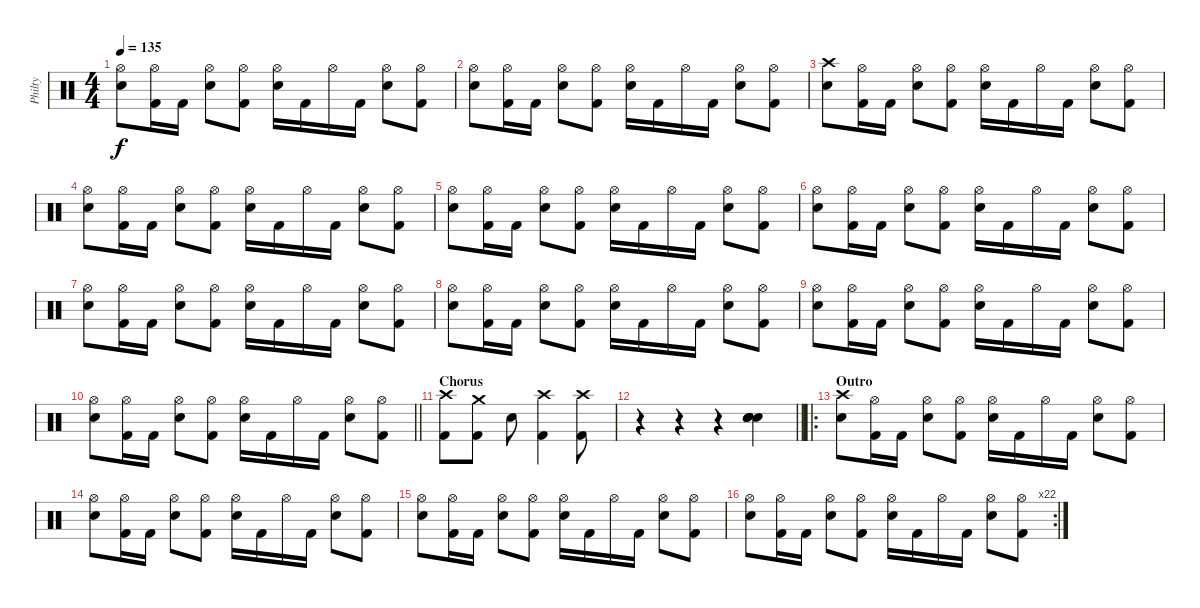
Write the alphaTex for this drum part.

\track ("Philty" "Philty") {instrument percussion}
\staff {score}
\articulation defaults
\ts (4 4)
\tempo 135
\clef neutral
\ks c
("Hi-Hat (open)" "Electric Snare (hit)").8{dy f} ("Hi-Hat (open)" "Kick (hit) 2").16 "Kick (hit) 2".16 ("Hi-Hat (open)" "Electric Snare (hit)").8 ("Hi-Hat (open)" "Kick (hit) 2").8 ("Hi-Hat (open)" "Electric Snare (hit)").16 "Kick (hit) 2".16 "Hi-Hat (open)".16 "Kick (hit) 2".16 ("Hi-Hat (open)" "Electric Snare (hit)").8 ("Hi-Hat (open)" "Kick (hit) 2").8 |
("Hi-Hat (open)" "Electric Snare (hit)").8 ("Hi-Hat (open)" "Kick (hit) 2").16 "Kick (hit) 2".16 ("Hi-Hat (open)" "Electric Snare (hit)").8 ("Hi-Hat (open)" "Kick (hit) 2").8 ("Hi-Hat (open)" "Electric Snare (hit)").16 "Kick (hit) 2".16 "Hi-Hat (open)".16 "Kick (hit) 2".16 ("Hi-Hat (open)" "Electric Snare (hit)").8 ("Hi-Hat (open)" "Kick (hit) 2").8 |
("Crash high (hit)" "Electric Snare (hit)").8 ("Hi-Hat (open)" "Kick (hit) 2").16 "Kick (hit) 2".16 ("Hi-Hat (open)" "Electric Snare (hit)").8 ("Hi-Hat (open)" "Kick (hit) 2").8 ("Hi-Hat (open)" "Electric Snare (hit)").16 "Kick (hit) 2".16 "Hi-Hat (open)".16 "Kick (hit) 2".16 ("Hi-Hat (open)" "Electric Snare (hit)").8 ("Hi-Hat (open)" "Kick (hit) 2").8 |
("Hi-Hat (open)" "Electric Snare (hit)").8 ("Hi-Hat (open)" "Kick (hit) 2").16 "Kick (hit) 2".16 ("Hi-Hat (open)" "Electric Snare (hit)").8 ("Hi-Hat (open)" "Kick (hit) 2").8 ("Hi-Hat (open)" "Electric Snare (hit)").16 "Kick (hit) 2".16 "Hi-Hat (open)".16 "Kick (hit) 2".16 ("Hi-Hat (open)" "Electric Snare (hit)").8 ("Hi-Hat (open)" "Kick (hit) 2").8 |
("Hi-Hat (open)" "Electric Snare (hit)").8 ("Hi-Hat (open)" "Kick (hit) 2").16 "Kick (hit) 2".16 ("Hi-Hat (open)" "Electric Snare (hit)").8 ("Hi-Hat (open)" "Kick (hit) 2").8 ("Hi-Hat (open)" "Electric Snare (hit)").16 "Kick (hit) 2".16 "Hi-Hat (open)".16 "Kick (hit) 2".16 ("Hi-Hat (open)" "Electric Snare (hit)").8 ("Hi-Hat (open)" "Kick (hit) 2").8 |
("Hi-Hat (open)" "Electric Snare (hit)").8 ("Hi-Hat (open)" "Kick (hit) 2").16 "Kick (hit) 2".16 ("Hi-Hat (open)" "Electric Snare (hit)").8 ("Hi-Hat (open)" "Kick (hit) 2").8 ("Hi-Hat (open)" "Electric Snare (hit)").16 "Kick (hit) 2".16 "Hi-Hat (open)".16 "Kick (hit) 2".16 ("Hi-Hat (open)" "Electric Snare (hit)").8 ("Hi-Hat (open)" "Kick (hit) 2").8 |
("Hi-Hat (open)" "Electric Snare (hit)").8 ("Hi-Hat (open)" "Kick (hit) 2").16 "Kick (hit) 2".16 ("Hi-Hat (open)" "Electric Snare (hit)").8 ("Hi-Hat (open)" "Kick (hit) 2").8 ("Hi-Hat (open)" "Electric Snare (hit)").16 "Kick (hit) 2".16 "Hi-Hat (open)".16 "Kick (hit) 2".16 ("Hi-Hat (open)" "Electric Snare (hit)").8 ("Hi-Hat (open)" "Kick (hit) 2").8 |
("Hi-Hat (open)" "Electric Snare (hit)").8 ("Hi-Hat (open)" "Kick (hit) 2").16 "Kick (hit) 2".16 ("Hi-Hat (open)" "Electric Snare (hit)").8 ("Hi-Hat (open)" "Kick (hit) 2").8 ("Hi-Hat (open)" "Electric Snare (hit)").16 "Kick (hit) 2".16 "Hi-Hat (open)".16 "Kick (hit) 2".16 ("Hi-Hat (open)" "Electric Snare (hit)").8 ("Hi-Hat (open)" "Kick (hit) 2").8 |
("Hi-Hat (open)" "Electric Snare (hit)").8 ("Hi-Hat (open)" "Kick (hit) 2").16 "Kick (hit) 2".16 ("Hi-Hat (open)" "Electric Snare (hit)").8 ("Hi-Hat (open)" "Kick (hit) 2").8 ("Hi-Hat (open)" "Electric Snare (hit)").16 "Kick (hit) 2".16 "Hi-Hat (open)".16 "Kick (hit) 2".16 ("Hi-Hat (open)" "Electric Snare (hit)").8 ("Hi-Hat (open)" "Kick (hit) 2").8 |
\barLineRight lightlight
("Hi-Hat (open)" "Electric Snare (hit)").8 ("Hi-Hat (open)" "Kick (hit) 2").16 "Kick (hit) 2".16 ("Hi-Hat (open)" "Electric Snare (hit)").8 ("Hi-Hat (open)" "Kick (hit) 2").8 ("Hi-Hat (open)" "Electric Snare (hit)").16 "Kick (hit) 2".16 "Hi-Hat (open)".16 "Kick (hit) 2".16 ("Hi-Hat (open)" "Electric Snare (hit)").8 ("Hi-Hat (open)" "Kick (hit) 2").8 |
\section ("" "Chorus")
("Crash high (hit)" "Kick (hit) 2").8 ("Crash medium (hit)" "Kick (hit) 2").8 "Electric Snare (hit)".8 ("Crash high (hit)" "Kick (hit) 2").4 ("Crash high (hit)" "Kick (hit) 2").8 |
\barLineRight lightlight
r.4 r.4 r.4 ("Electric Snare (hit)" "Electric Snare (hit)" "Electric Snare (hit)" "Snare (hit) 2").4 |
\ro
\section ("" "Outro")
("Crash high (hit)" "Electric Snare (hit)").8 ("Hi-Hat (open)" "Kick (hit) 2").16 "Kick (hit) 2".16 ("Hi-Hat (open)" "Electric Snare (hit)").8 ("Hi-Hat (open)" "Kick (hit) 2").8 ("Hi-Hat (open)" "Electric Snare (hit)").16 "Kick (hit) 2".16 "Hi-Hat (open)".16 "Kick (hit) 2".16 ("Hi-Hat (open)" "Electric Snare (hit)").8 ("Hi-Hat (open)" "Kick (hit) 2").8 |
("Hi-Hat (open)" "Electric Snare (hit)").8 ("Hi-Hat (open)" "Kick (hit) 2").16 "Kick (hit) 2".16 ("Hi-Hat (open)" "Electric Snare (hit)").8 ("Hi-Hat (open)" "Kick (hit) 2").8 ("Hi-Hat (open)" "Electric Snare (hit)").16 "Kick (hit) 2".16 "Hi-Hat (open)".16 "Kick (hit) 2".16 ("Hi-Hat (open)" "Electric Snare (hit)").8 ("Hi-Hat (open)" "Kick (hit) 2").8 |
("Hi-Hat (open)" "Electric Snare (hit)").8 ("Hi-Hat (open)" "Kick (hit) 2").16 "Kick (hit) 2".16 ("Hi-Hat (open)" "Electric Snare (hit)").8 ("Hi-Hat (open)" "Kick (hit) 2").8 ("Hi-Hat (open)" "Electric Snare (hit)").16 "Kick (hit) 2".16 "Hi-Hat (open)".16 "Kick (hit) 2".16 ("Hi-Hat (open)" "Electric Snare (hit)").8 ("Hi-Hat (open)" "Kick (hit) 2").8 |
\rc 22
("Hi-Hat (open)" "Electric Snare (hit)").8 ("Hi-Hat (open)" "Kick (hit) 2").16 "Kick (hit) 2".16 ("Hi-Hat (open)" "Electric Snare (hit)").8 ("Hi-Hat (open)" "Kick (hit) 2").8 ("Hi-Hat (open)" "Electric Snare (hit)").16 "Kick (hit) 2".16 "Hi-Hat (open)".16 "Kick (hit) 2".16 ("Hi-Hat (open)" "Electric Snare (hit)").8 ("Hi-Hat (open)" "Kick (hit) 2").8
